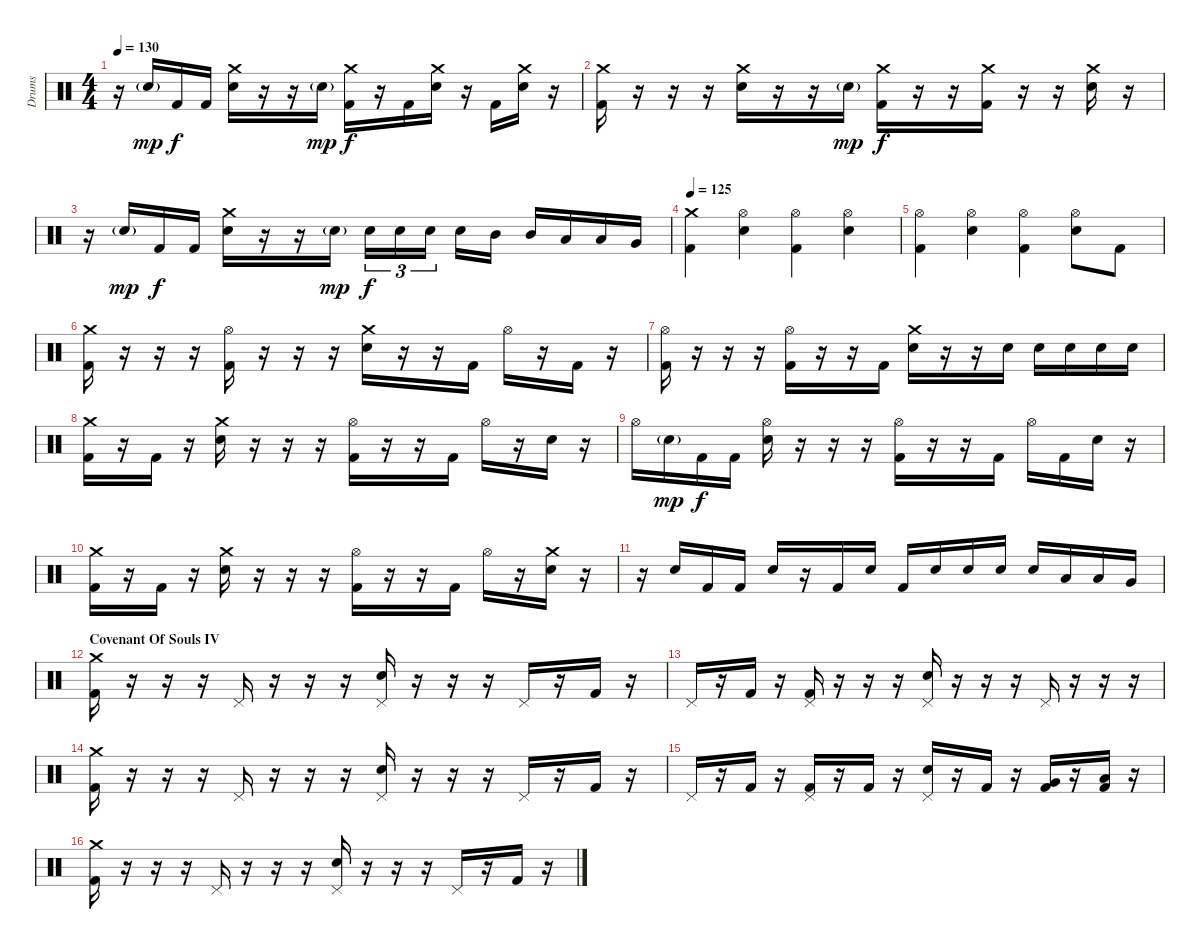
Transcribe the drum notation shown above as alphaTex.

\track ("Drums" "Drums") {instrument percussion}
\staff {score}
\articulation defaults
\ts (4 4)
\tempo 130
\clef neutral
\ks c
r.16{dy f} "Electric Snare (hit)"{g}.16{dy mp} "Kick (hit) 2".16{dy f} "Kick (hit) 2".16 ("Crash medium (hit)" "Electric Snare (hit)").16 r.16 r.16 "Electric Snare (hit)"{g}.16{dy mp} ("Crash medium (hit)" "Kick (hit) 2").16{dy f} r.16 "Kick (hit) 2".16 ("Crash medium (hit)" "Electric Snare (hit)").16 r.16 "Kick (hit) 2".16 ("Crash medium (hit)" "Electric Snare (hit)").16 r.16 |
("Crash medium (hit)" "Kick (hit) 2").16 r.16 r.16 r.16 ("Crash medium (hit)" "Electric Snare (hit)").16 r.16 r.16 "Electric Snare (hit)"{g}.16{dy mp} ("Crash medium (hit)" "Kick (hit) 2").16{dy f} r.16 r.16 ("Crash medium (hit)" "Kick (hit) 2").16 r.16 r.16 ("Crash medium (hit)" "Electric Snare (hit)").16 r.16 |
r.16 "Electric Snare (hit)"{g}.16{dy mp} "Kick (hit) 2".16{dy f} "Kick (hit) 2".16 ("Crash medium (hit)" "Electric Snare (hit)").16 r.16 r.16 "Electric Snare (hit)"{g}.16{dy mp} "Electric Snare (hit)".16{tu (3 2) dy f} "Electric Snare (hit)".16{tu (3 2)} "Electric Snare (hit)".16{tu (3 2)} "Electric Snare (hit)".16 "Mid Tom (hit)".16 "Mid Tom (hit)".16 "Low Tom (hit)".16 "Low Tom (hit)".16 "Very Low Tom (hit)".16 |
\section ("" "")
\tempo 125
("Crash medium (hit)" "Kick (hit) 2").4 ("Hi-Hat (open)" "Electric Snare (hit)").4 ("Hi-Hat (open)" "Kick (hit) 2").4 ("Hi-Hat (open)" "Electric Snare (hit)").4 |
("Hi-Hat (open)" "Kick (hit) 2").4 ("Hi-Hat (open)" "Electric Snare (hit)").4 ("Hi-Hat (open)" "Kick (hit) 2").4 ("Hi-Hat (open)" "Electric Snare (hit)").8 "Kick (hit) 2".8 |
("Crash medium (hit)" "Kick (hit) 2").16 r.16 r.16 r.16 ("Hi-Hat (open)" "Kick (hit) 2").16 r.16 r.16 r.16 ("Crash medium (hit)" "Electric Snare (hit)").16 r.16 r.16 "Kick (hit) 2".16 "Hi-Hat (open)".16 r.16 "Kick (hit) 2".16 r.16 |
("Hi-Hat (open)" "Kick (hit) 2").16 r.16 r.16 r.16 ("Hi-Hat (open)" "Kick (hit) 2").16 r.16 r.16 "Kick (hit) 2".16 ("Crash medium (hit)" "Electric Snare (hit)").16 r.16 r.16 "Electric Snare (hit)".16 "Electric Snare (hit)".16 "Electric Snare (hit)".16 "Electric Snare (hit)".16 "Electric Snare (hit)".16 |
("Crash medium (hit)" "Kick (hit) 2").16 r.16 "Kick (hit) 2".16 r.16 ("Crash medium (hit)" "Electric Snare (hit)").16 r.16 r.16 r.16 ("Hi-Hat (open)" "Kick (hit) 2").16 r.16 r.16 "Kick (hit) 2".16 "Hi-Hat (open)".16 r.16 "Electric Snare (hit)".16 r.16 |
"Hi-Hat (open)".16 "Electric Snare (hit)"{g}.16{dy mp} "Kick (hit) 2".16{dy f} "Kick (hit) 2".16 ("Hi-Hat (open)" "Electric Snare (hit)").16 r.16 r.16 r.16 ("Hi-Hat (open)" "Kick (hit) 2").16 r.16 r.16 "Kick (hit) 2".16 "Hi-Hat (open)".16 "Kick (hit) 2".16 "Electric Snare (hit)".16 r.16 |
("Crash medium (hit)" "Kick (hit) 2").16 r.16 "Kick (hit) 2".16 r.16 ("Crash medium (hit)" "Electric Snare (hit)").16 r.16 r.16 r.16 ("Hi-Hat (open)" "Kick (hit) 2").16 r.16 r.16 "Kick (hit) 2".16 "Hi-Hat (open)".16 r.16 ("Crash medium (hit)" "Electric Snare (hit)").16 r.16 |
r.16 "Electric Snare (hit)".16 "Kick (hit) 2".16 "Kick (hit) 2".16 "Electric Snare (hit)".16 r.16 "Kick (hit) 2".16 "Electric Snare (hit)".16 "Kick (hit) 2".16 "Electric Snare (hit)".16 "Electric Snare (hit)".16 "Electric Snare (hit)".16 "Electric Snare (hit)".16 "Low Tom (hit)".16 "Low Tom (hit)".16 "Very Low Tom (hit)".16 |
\section ("" "Covenant Of Souls IV")
("Crash medium (hit)" "Kick (hit) 2").16 r.16 r.16 r.16 "Pedal Hi-Hat (hit)".16 r.16 r.16 r.16 ("Pedal Hi-Hat (hit)" "Electric Snare (hit)").16 r.16 r.16 r.16 "Pedal Hi-Hat (hit)".16 r.16 "Kick (hit) 2".16 r.16 |
"Pedal Hi-Hat (hit)".16 r.16 "Kick (hit) 2".16 r.16 ("Pedal Hi-Hat (hit)" "Kick (hit) 2").16 r.16 r.16 r.16 ("Pedal Hi-Hat (hit)" "Electric Snare (hit)").16 r.16 r.16 r.16 "Pedal Hi-Hat (hit)".16 r.16 r.16 r.16 |
("Crash medium (hit)" "Kick (hit) 2").16 r.16 r.16 r.16 "Pedal Hi-Hat (hit)".16 r.16 r.16 r.16 ("Pedal Hi-Hat (hit)" "Electric Snare (hit)").16 r.16 r.16 r.16 "Pedal Hi-Hat (hit)".16 r.16 "Kick (hit) 2".16 r.16 |
"Pedal Hi-Hat (hit)".16 r.16 "Kick (hit) 2".16 r.16 ("Pedal Hi-Hat (hit)" "Kick (hit) 2").16 r.16 "Kick (hit) 2".16 r.16 ("Pedal Hi-Hat (hit)" "Electric Snare (hit)").16 r.16 "Kick (hit) 2".16 r.16 ("Very Low Tom (hit)" "Kick (hit) 2").16 r.16 ("Low Floor Tom (hit)" "Kick (hit) 2").16 r.16 |
("Crash medium (hit)" "Kick (hit) 2").16 r.16 r.16 r.16 "Pedal Hi-Hat (hit)".16 r.16 r.16 r.16 ("Pedal Hi-Hat (hit)" "Electric Snare (hit)").16 r.16 r.16 r.16 "Pedal Hi-Hat (hit)".16 r.16 "Kick (hit) 2".16 r.16
